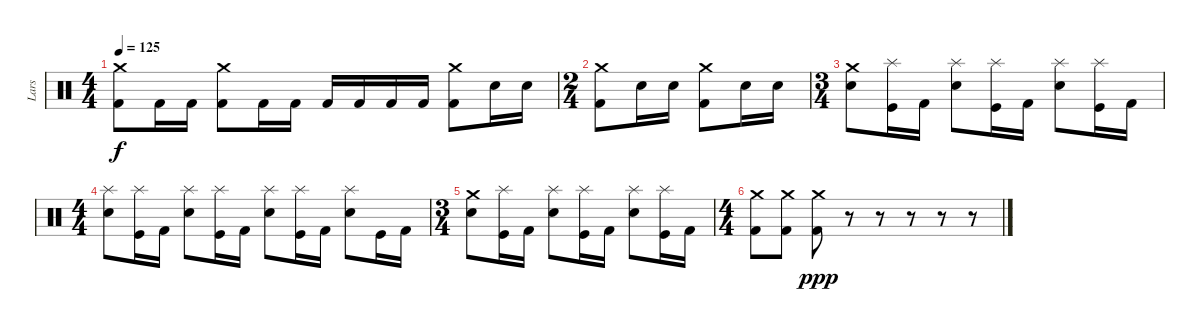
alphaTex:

\track ("Lars" "Lars") {instrument percussion}
\staff {score}
\articulation defaults
\ts (4 4)
\tempo 125
\clef neutral
\ks c
("Crash medium (hit)" "Kick (hit) 2").8{dy f} "Kick (hit) 2".16 "Kick (hit) 2".16 ("Crash medium (hit)" "Kick (hit) 2").8 "Kick (hit) 2".16 "Kick (hit) 2".16 "Kick (hit) 2".16 "Kick (hit) 2".16 "Kick (hit) 2".16 "Kick (hit) 2".16 ("Crash medium (hit)" "Kick (hit) 2").8 "Snare (hit) 2".16 "Snare (hit) 2".16 |
\ts (2 4)
("Crash medium (hit)" "Kick (hit) 2").8 "Snare (hit) 2".16 "Snare (hit) 2".16 ("Crash medium (hit)" "Kick (hit) 2").8 "Snare (hit) 2".16 "Snare (hit) 2".16 |
\ts (3 4)
("Crash medium (hit)" "Snare (hit) 2").8 ("Splash (hit)" "Kick (hit)").16 "Kick (hit) 2".16 ("Splash (hit)" "Snare (hit) 2").8 ("Splash (hit)" "Kick (hit)").16 "Kick (hit) 2".16 ("Splash (hit)" "Snare (hit) 2").8 ("Splash (hit)" "Kick (hit)").16 "Kick (hit) 2".16 |
\ts (4 4)
("Splash (hit)" "Snare (hit) 2").8 ("Splash (hit)" "Kick (hit)").16 "Kick (hit) 2".16 ("Splash (hit)" "Snare (hit) 2").8 ("Splash (hit)" "Kick (hit)").16 "Kick (hit) 2".16 ("Splash (hit)" "Snare (hit) 2").8 ("Splash (hit)" "Kick (hit)").16 "Kick (hit) 2".16 ("Splash (hit)" "Snare (hit) 2").8 "Kick (hit)".16 "Kick (hit) 2".16 |
\ts (3 4)
("Crash medium (hit)" "Snare (hit) 2").8 ("Splash (hit)" "Kick (hit)").16 "Kick (hit) 2".16 ("Splash (hit)" "Snare (hit) 2").8 ("Splash (hit)" "Kick (hit)").16 "Kick (hit) 2".16 ("Splash (hit)" "Snare (hit) 2").8 ("Splash (hit)" "Kick (hit)").16 "Kick (hit) 2".16 |
\ts (4 4)
("Crash medium (hit)" "Kick (hit) 2").8 ("Crash medium (hit)" "Kick (hit) 2").8 ("Crash medium (hit)" "Kick (hit) 2").8{dy ppp} r.8 r.8 r.8 r.8 r.8
